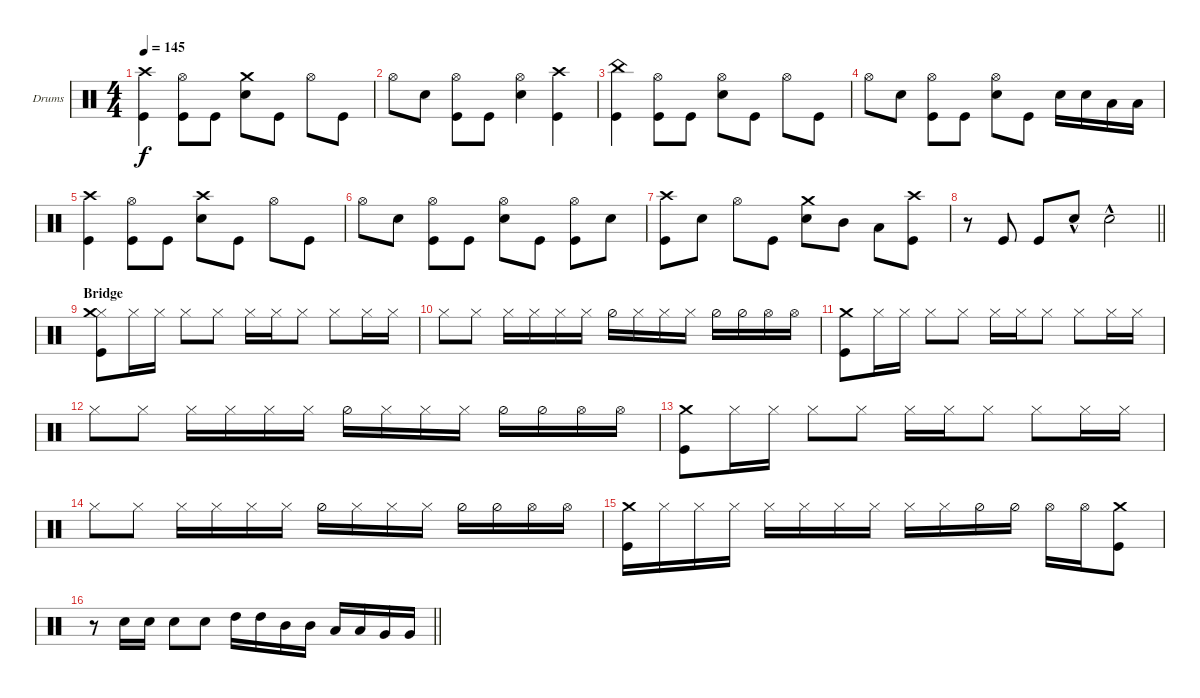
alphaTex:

\bracketExtendMode groupsimilarinstruments
\firstSystemTrackNameOrientation horizontal
\otherSystemsTrackNameOrientation horizontal
\track ("drums (Anton Zulganov)" "Drums") {instrument percussion}
\staff {score}
\articulation defaults
\ts (4 4)
\tempo 145
\clef neutral
\ks aminor
("Kick (hit)" "Crash high (hit)").4{dy f} ("Hi-Hat (open)" "Kick (hit)").8 "Kick (hit)".8 ("Snare (hit) 2" "Crash medium (hit)").8 "Kick (hit)".8 "Hi-Hat (open)".8 "Kick (hit)".8 |
"Hi-Hat (open)".8 "Snare (hit) 2".8 ("Hi-Hat (open)" "Kick (hit)").8 "Kick (hit)".8 ("Hi-Hat (open)" "Snare (hit) 2").4 ("Kick (hit)" "Crash high (hit)").4 |
("Kick (hit)" "China (hit)").4 ("Hi-Hat (open)" "Kick (hit)").8 "Kick (hit)".8 ("Snare (hit) 2" "Hi-Hat (open)").8 "Kick (hit)".8 "Hi-Hat (open)".8 "Kick (hit)".8 |
"Hi-Hat (open)".8 "Snare (hit) 2".8 ("Hi-Hat (open)" "Kick (hit)").8 "Kick (hit)".8 ("Hi-Hat (open)" "Snare (hit) 2").8 "Kick (hit)".8 "Snare (hit) 2".16 "Snare (hit) 2".16 "Low Tom (hit)".16 "Low Tom (hit)".16 |
("Kick (hit)" "Crash high (hit)").4 ("Hi-Hat (open)" "Kick (hit)").8 "Kick (hit)".8 ("Snare (hit) 2" "Crash high (hit)").8 "Kick (hit)".8 "Hi-Hat (open)".8 "Kick (hit)".8 |
"Hi-Hat (open)".8 "Snare (hit) 2".8 ("Hi-Hat (open)" "Kick (hit)").8 "Kick (hit)".8 ("Hi-Hat (open)" "Snare (hit) 2").8 "Kick (hit)".8 ("Hi-Hat (open)" "Kick (hit)").8 "Snare (hit) 2".8 |
("Kick (hit)" "Crash high (hit)").8 "Snare (hit) 2".8 "Hi-Hat (open)".8 "Kick (hit)".8 ("Snare (hit) 2" "Crash medium (hit)").8 "Mid Tom (hit)".8 "Low Tom (hit)".8 ("Kick (hit)" "Crash high (hit)").8 |
\barLineRight lightlight
r.8 "Kick (hit)".8 "Kick (hit)".8 "Snare (hit) 2"{hac}.8 "Snare (hit) 2"{hac}.2 |
\section ("" "Bridge")
("Hi-Hat (closed)" "Crash medium (hit)" "Kick (hit)").8 "Hi-Hat (closed)".16 "Hi-Hat (closed)".16 "Hi-Hat (closed)".8 "Hi-Hat (closed)".8 "Hi-Hat (closed)".16 "Hi-Hat (closed)".16 "Hi-Hat (closed)".8 "Hi-Hat (closed)".8 "Hi-Hat (closed)".16 "Hi-Hat (closed)".16 |
"Hi-Hat (closed)".8 "Hi-Hat (closed)".8 "Hi-Hat (closed)".16 "Hi-Hat (closed)".16 "Hi-Hat (closed)".16 "Hi-Hat (closed)".16 "Hi-Hat (half)".16 "Hi-Hat (closed)".16 "Hi-Hat (closed)".16 "Hi-Hat (closed)".16 "Hi-Hat (half)".16 "Hi-Hat (half)".16 "Hi-Hat (open)".16 "Hi-Hat (open)".16 |
("Kick (hit)" "Crash medium (hit)").8 "Hi-Hat (closed)".16 "Hi-Hat (closed)".16 "Hi-Hat (closed)".8 "Hi-Hat (closed)".8 "Hi-Hat (closed)".16 "Hi-Hat (closed)".16 "Hi-Hat (closed)".8 "Hi-Hat (closed)".8 "Hi-Hat (closed)".16 "Hi-Hat (closed)".16 |
"Hi-Hat (closed)".8 "Hi-Hat (closed)".8 "Hi-Hat (closed)".16 "Hi-Hat (closed)".16 "Hi-Hat (closed)".16 "Hi-Hat (closed)".16 "Hi-Hat (half)".16 "Hi-Hat (closed)".16 "Hi-Hat (closed)".16 "Hi-Hat (closed)".16 "Hi-Hat (half)".16 "Hi-Hat (half)".16 "Hi-Hat (open)".16 "Hi-Hat (open)".16 |
("Crash medium (hit)" "Kick (hit)").8 "Hi-Hat (closed)".16 "Hi-Hat (closed)".16 "Hi-Hat (closed)".8 "Hi-Hat (closed)".8 "Hi-Hat (closed)".16 "Hi-Hat (closed)".16 "Hi-Hat (closed)".8 "Hi-Hat (closed)".8 "Hi-Hat (closed)".16 "Hi-Hat (closed)".16 |
"Hi-Hat (closed)".8 "Hi-Hat (closed)".8 "Hi-Hat (closed)".16 "Hi-Hat (closed)".16 "Hi-Hat (closed)".16 "Hi-Hat (closed)".16 "Hi-Hat (half)".16 "Hi-Hat (closed)".16 "Hi-Hat (closed)".16 "Hi-Hat (closed)".16 "Hi-Hat (half)".16 "Hi-Hat (half)".16 "Hi-Hat (open)".16 "Hi-Hat (open)".16 |
("Crash medium (hit)" "Kick (hit)").16 "Hi-Hat (closed)".16 "Hi-Hat (closed)".16 "Hi-Hat (closed)".16 "Hi-Hat (closed)".16 "Hi-Hat (closed)".16 "Hi-Hat (closed)".16 "Hi-Hat (closed)".16 "Hi-Hat (closed)".16 "Hi-Hat (closed)".16 "Hi-Hat (half)".16 "Hi-Hat (half)".16 "Hi-Hat (open)".16 "Hi-Hat (open)".16 ("Kick (hit)" "Crash medium (hit)").8 |
\barLineRight lightlight
r.8 "Snare (hit) 2".16 "Snare (hit) 2".16 "Snare (hit) 2".8 "Snare (hit) 2".8 "High Tom (hit)".16 "High Tom (hit)".16 "Mid Tom (hit)".16 "Mid Tom (hit)".16 "Low Tom (hit)".16 "Low Tom (hit)".16 "Very Low Tom (hit)".16 "Very Low Tom (hit)".16
